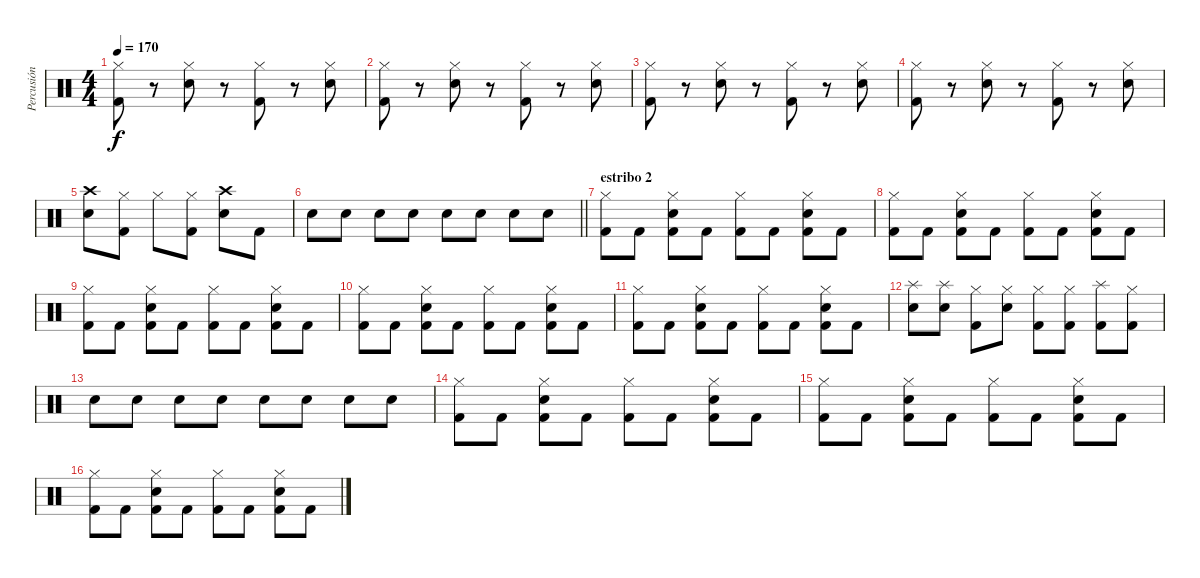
\track ("Percusión" "Percusión") {instrument percussion}
\staff {score}
\articulation defaults
\ts (4 4)
\tempo 170
\clef neutral
\ks c
("Hi-Hat (closed)" "Kick (hit) 2").8{dy f} r.8 ("Hi-Hat (closed)" "Electric Snare (hit)").8 r.8 ("Hi-Hat (closed)" "Kick (hit) 2").8 r.8 ("Hi-Hat (closed)" "Electric Snare (hit)").8 |
("Hi-Hat (closed)" "Kick (hit) 2").8 r.8 ("Hi-Hat (closed)" "Electric Snare (hit)").8 r.8 ("Hi-Hat (closed)" "Kick (hit) 2").8 r.8 ("Hi-Hat (closed)" "Electric Snare (hit)").8 |
("Hi-Hat (closed)" "Kick (hit) 2").8 r.8 ("Hi-Hat (closed)" "Electric Snare (hit)").8 r.8 ("Hi-Hat (closed)" "Kick (hit) 2").8 r.8 ("Hi-Hat (closed)" "Electric Snare (hit)").8 |
("Hi-Hat (closed)" "Kick (hit) 2").8 r.8 ("Hi-Hat (closed)" "Electric Snare (hit)").8 r.8 ("Hi-Hat (closed)" "Kick (hit) 2").8 r.8 ("Hi-Hat (closed)" "Electric Snare (hit)").8 |
("Crash high (hit)" "Electric Snare (hit)").8 ("Hi-Hat (closed)" "Kick (hit) 2").8 "Hi-Hat (closed)".8 ("Hi-Hat (closed)" "Kick (hit) 2").8 ("Crash high (hit)" "Electric Snare (hit)").8 "Kick (hit) 2".8 |
\barLineRight lightlight "Electric Snare (hit)".8 "Electric Snare (hit)".8 "Electric Snare (hit)".8 "Electric Snare (hit)".8 "Electric Snare (hit)".8 "Electric Snare (hit)".8 "Electric Snare (hit)".8 "Electric Snare (hit)".8
|
\section ("" "estribo 2")
("Hi-Hat (closed)" "Kick (hit) 2").8 "Kick (hit) 2".8 ("Hi-Hat (closed)" "Electric Snare (hit)" "Kick (hit) 2").8 "Kick (hit) 2".8 ("Hi-Hat (closed)" "Kick (hit) 2").8 "Kick (hit) 2".8 ("Hi-Hat (closed)" "Electric Snare (hit)" "Kick (hit) 2").8 "Kick (hit) 2".8 |
("Hi-Hat (closed)" "Kick (hit) 2").8 "Kick (hit) 2".8 ("Hi-Hat (closed)" "Electric Snare (hit)" "Kick (hit) 2").8 "Kick (hit) 2".8 ("Hi-Hat (closed)" "Kick (hit) 2").8 "Kick (hit) 2".8 ("Hi-Hat (closed)" "Electric Snare (hit)" "Kick (hit) 2").8 "Kick (hit) 2".8 |
("Hi-Hat (closed)" "Kick (hit) 2").8 "Kick (hit) 2".8 ("Hi-Hat (closed)" "Electric Snare (hit)" "Kick (hit) 2").8 "Kick (hit) 2".8 ("Hi-Hat (closed)" "Kick (hit) 2").8 "Kick (hit) 2".8 ("Hi-Hat (closed)" "Electric Snare (hit)" "Kick (hit) 2").8 "Kick (hit) 2".8 |
("Hi-Hat (closed)" "Kick (hit) 2").8 "Kick (hit) 2".8 ("Hi-Hat (closed)" "Electric Snare (hit)" "Kick (hit) 2").8 "Kick (hit) 2".8 ("Hi-Hat (closed)" "Kick (hit) 2").8 "Kick (hit) 2".8 ("Hi-Hat (closed)" "Electric Snare (hit)" "Kick (hit) 2").8 "Kick (hit) 2".8 |
("Hi-Hat (closed)" "Kick (hit) 2").8 "Kick (hit) 2".8 ("Hi-Hat (closed)" "Electric Snare (hit)" "Kick (hit) 2").8 "Kick (hit) 2".8 ("Hi-Hat (closed)" "Kick (hit) 2").8 "Kick (hit) 2".8 ("Hi-Hat (closed)" "Electric Snare (hit)" "Kick (hit) 2").8 "Kick (hit) 2".8 |
("Splash (hit)" "Electric Snare (hit)").8 ("Splash (hit)" "Electric Snare (hit)").8 ("Hi-Hat (closed)" "Kick (hit) 2").8 ("Hi-Hat (closed)" "Electric Snare (hit)").8 ("Hi-Hat (closed)" "Kick (hit) 2").8 ("Hi-Hat (closed)" "Kick (hit) 2").8 ("Splash (hit)" "Kick (hit) 2").8 ("Hi-Hat (closed)" "Kick (hit) 2").8 |
"Electric Snare (hit)".8 "Electric Snare (hit)".8 "Electric Snare (hit)".8 "Electric Snare (hit)".8 "Electric Snare (hit)".8 "Electric Snare (hit)".8 "Electric Snare (hit)".8 "Electric Snare (hit)".8 |
("Hi-Hat (closed)" "Kick (hit) 2").8 "Kick (hit) 2".8 ("Hi-Hat (closed)" "Electric Snare (hit)" "Kick (hit) 2").8 "Kick (hit) 2".8 ("Hi-Hat (closed)" "Kick (hit) 2").8 "Kick (hit) 2".8 ("Hi-Hat (closed)" "Electric Snare (hit)" "Kick (hit) 2").8 "Kick (hit) 2".8 |
("Hi-Hat (closed)" "Kick (hit) 2").8 "Kick (hit) 2".8 ("Hi-Hat (closed)" "Electric Snare (hit)" "Kick (hit) 2").8 "Kick (hit) 2".8 ("Hi-Hat (closed)" "Kick (hit) 2").8 "Kick (hit) 2".8 ("Hi-Hat (closed)" "Electric Snare (hit)" "Kick (hit) 2").8 "Kick (hit) 2".8 |
("Hi-Hat (closed)" "Kick (hit) 2").8 "Kick (hit) 2".8 ("Hi-Hat (closed)" "Electric Snare (hit)" "Kick (hit) 2").8 "Kick (hit) 2".8 ("Hi-Hat (closed)" "Kick (hit) 2").8 "Kick (hit) 2".8 ("Hi-Hat (closed)" "Electric Snare (hit)" "Kick (hit) 2").8 "Kick (hit) 2".8
